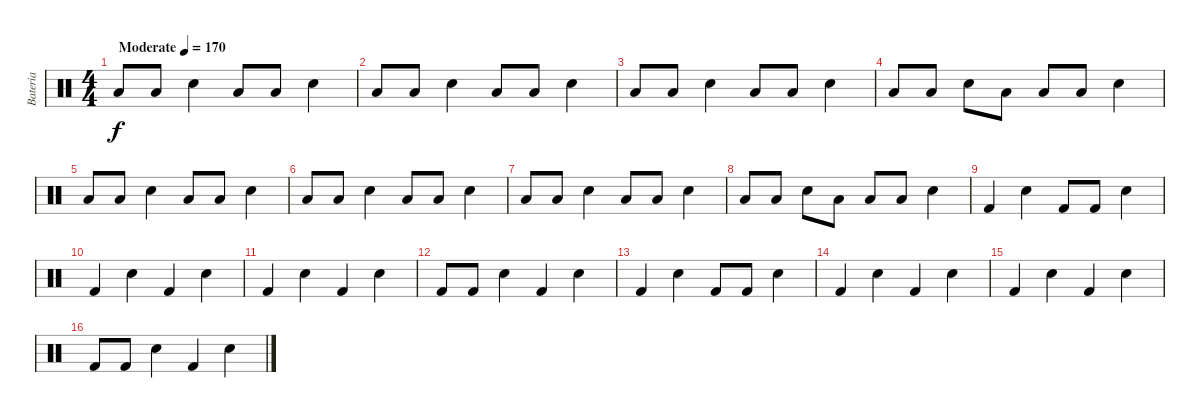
\track ("Bateria" "Bateria") {instrument percussion}
\staff {score}
\articulation defaults
\ts (4 4)
\tempo (170 "Moderate")
\clef neutral
\ks c "Low Tom (hit)".8{dy f} "Low Tom (hit)".8 "Electric Snare (hit)".4 "Low Tom (hit)".8 "Low Tom (hit)".8 "Electric Snare (hit)".4
|
"Low Tom (hit)".8 "Low Tom (hit)".8 "Electric Snare (hit)".4 "Low Tom (hit)".8 "Low Tom (hit)".8 "Electric Snare (hit)".4 |
"Low Tom (hit)".8 "Low Tom (hit)".8 "Electric Snare (hit)".4 "Low Tom (hit)".8 "Low Tom (hit)".8 "Electric Snare (hit)".4 |
"Low Tom (hit)".8 "Low Tom (hit)".8 "Electric Snare (hit)".8 "Low Tom (hit)".8 "Low Tom (hit)".8 "Low Tom (hit)".8 "Electric Snare (hit)".4 |
"Low Tom (hit)".8 "Low Tom (hit)".8 "Electric Snare (hit)".4 "Low Tom (hit)".8 "Low Tom (hit)".8 "Electric Snare (hit)".4 |
"Low Tom (hit)".8 "Low Tom (hit)".8 "Electric Snare (hit)".4 "Low Tom (hit)".8 "Low Tom (hit)".8 "Electric Snare (hit)".4 |
"Low Tom (hit)".8 "Low Tom (hit)".8 "Electric Snare (hit)".4 "Low Tom (hit)".8 "Low Tom (hit)".8 "Electric Snare (hit)".4 |
"Low Tom (hit)".8 "Low Tom (hit)".8 "Electric Snare (hit)".8 "Low Tom (hit)".8 "Low Tom (hit)".8 "Low Tom (hit)".8 "Electric Snare (hit)".4 |
"Kick (hit) 2".4 "Electric Snare (hit)".4 "Kick (hit) 2".8 "Kick (hit) 2".8 "Electric Snare (hit)".4 |
"Kick (hit) 2".4 "Electric Snare (hit)".4 "Kick (hit) 2".4 "Electric Snare (hit)".4 |
"Kick (hit) 2".4 "Electric Snare (hit)".4 "Kick (hit) 2".4 "Electric Snare (hit)".4 |
"Kick (hit) 2".8 "Kick (hit) 2".8 "Electric Snare (hit)".4 "Kick (hit) 2".4 "Electric Snare (hit)".4 |
"Kick (hit) 2".4 "Electric Snare (hit)".4 "Kick (hit) 2".8 "Kick (hit) 2".8 "Electric Snare (hit)".4 |
"Kick (hit) 2".4 "Electric Snare (hit)".4 "Kick (hit) 2".4 "Electric Snare (hit)".4 |
"Kick (hit) 2".4 "Electric Snare (hit)".4 "Kick (hit) 2".4 "Electric Snare (hit)".4 |
"Kick (hit) 2".8 "Kick (hit) 2".8 "Electric Snare (hit)".4 "Kick (hit) 2".4 "Electric Snare (hit)".4
